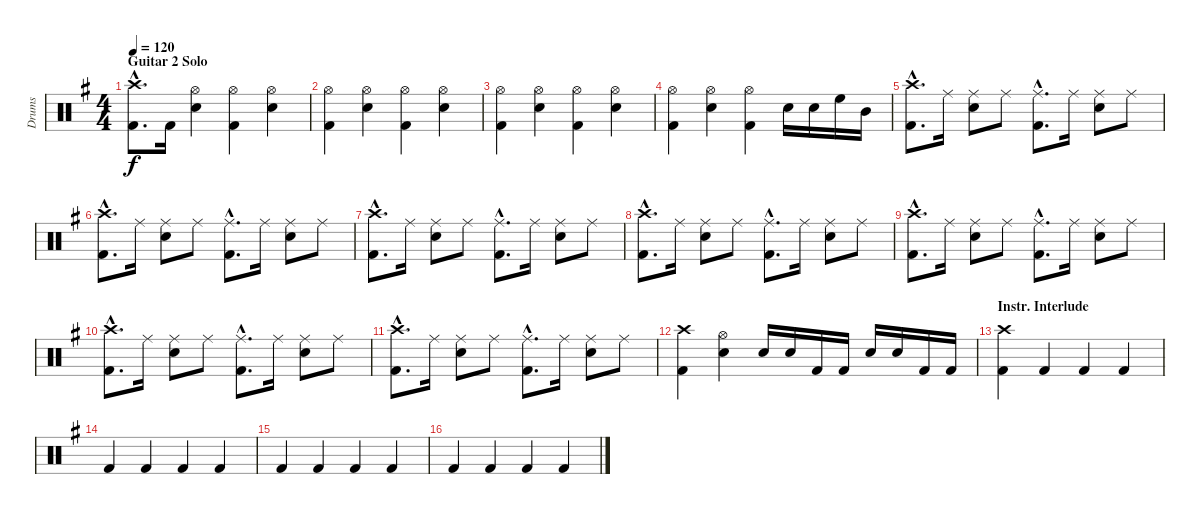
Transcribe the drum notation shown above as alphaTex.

\track ("Drums" "Drums") {instrument percussion}
\staff {score}
\articulation defaults
\ts (4 4)
\section ("" "Guitar 2 Solo")
\tempo 120
\clef neutral
\ks eminor
("Crash high (hit)"{hac} "Kick (hit) 2"{hac}).8{d dy f} "Kick (hit) 2".16 ("Hi-Hat (open)" "Snare (hit) 2").4 ("Hi-Hat (open)" "Kick (hit) 2").4 ("Hi-Hat (open)" "Snare (hit) 2").4 |
("Hi-Hat (open)" "Kick (hit) 2").4 ("Hi-Hat (open)" "Snare (hit) 2").4 ("Hi-Hat (open)" "Kick (hit) 2").4 ("Hi-Hat (open)" "Snare (hit) 2").4 |
("Hi-Hat (open)" "Kick (hit) 2").4 ("Hi-Hat (open)" "Snare (hit) 2").4 ("Hi-Hat (open)" "Kick (hit) 2").4 ("Hi-Hat (open)" "Snare (hit) 2").4 |
("Hi-Hat (open)" "Kick (hit) 2").4 ("Hi-Hat (open)" "Snare (hit) 2").4 ("Hi-Hat (open)" "Kick (hit) 2").4 "Snare (hit) 2".16 "Snare (hit) 2".16 "High Floor Tom (hit)".16 "Mid Tom (hit)".16 |
("Crash high (hit)"{hac} "Kick (hit) 2"{hac}).8{d} "Ride (middle)".16 ("Ride (middle)" "Snare (hit) 2").8 "Ride (middle)".8 ("Ride (middle)"{hac} "Kick (hit) 2"{hac}).8{d} "Ride (middle)".16 ("Ride (middle)" "Snare (hit) 2").8 "Ride (middle)".8 |
("Crash high (hit)"{hac} "Kick (hit) 2"{hac}).8{d} "Ride (middle)".16 ("Ride (middle)" "Snare (hit) 2").8 "Ride (middle)".8 ("Ride (middle)"{hac} "Kick (hit) 2"{hac}).8{d} "Ride (middle)".16 ("Ride (middle)" "Snare (hit) 2").8 "Ride (middle)".8 |
("Crash high (hit)"{hac} "Kick (hit) 2"{hac}).8{d} "Ride (middle)".16 ("Ride (middle)" "Snare (hit) 2").8 "Ride (middle)".8 ("Ride (middle)"{hac} "Kick (hit) 2"{hac}).8{d} "Ride (middle)".16 ("Ride (middle)" "Snare (hit) 2").8 "Ride (middle)".8 |
("Crash high (hit)"{hac} "Kick (hit) 2"{hac}).8{d} "Ride (middle)".16 ("Ride (middle)" "Snare (hit) 2").8 "Ride (middle)".8 ("Ride (middle)"{hac} "Kick (hit) 2"{hac}).8{d} "Ride (middle)".16 ("Ride (middle)" "Snare (hit) 2").8 "Ride (middle)".8 |
("Crash high (hit)"{hac} "Kick (hit) 2"{hac}).8{d} "Ride (middle)".16 ("Ride (middle)" "Snare (hit) 2").8 "Ride (middle)".8 ("Ride (middle)"{hac} "Kick (hit) 2"{hac}).8{d} "Ride (middle)".16 ("Ride (middle)" "Snare (hit) 2").8 "Ride (middle)".8 |
("Crash high (hit)"{hac} "Kick (hit) 2"{hac}).8{d} "Ride (middle)".16 ("Ride (middle)" "Snare (hit) 2").8 "Ride (middle)".8 ("Ride (middle)"{hac} "Kick (hit) 2"{hac}).8{d} "Ride (middle)".16 ("Ride (middle)" "Snare (hit) 2").8 "Ride (middle)".8 |
("Crash high (hit)"{hac} "Kick (hit) 2"{hac}).8{d} "Ride (middle)".16 ("Ride (middle)" "Snare (hit) 2").8 "Ride (middle)".8 ("Ride (middle)"{hac} "Kick (hit) 2"{hac}).8{d} "Ride (middle)".16 ("Ride (middle)" "Snare (hit) 2").8 "Ride (middle)".8 |
("Crash high (hit)" "Kick (hit) 2").4 ("Hi-Hat (open)" "Snare (hit) 2").4 "Snare (hit) 2".16 "Snare (hit) 2".16 "Kick (hit) 2".16 "Kick (hit) 2".16 "Snare (hit) 2".16 "Snare (hit) 2".16 "Kick (hit) 2".16 "Kick (hit) 2".16 |
\section ("" "Instr. Interlude")
("Crash high (hit)" "Kick (hit) 2").4 "Kick (hit) 2".4 "Kick (hit) 2".4 "Kick (hit) 2".4 |
"Kick (hit) 2".4 "Kick (hit) 2".4 "Kick (hit) 2".4 "Kick (hit) 2".4 |
"Kick (hit) 2".4 "Kick (hit) 2".4 "Kick (hit) 2".4 "Kick (hit) 2".4 |
"Kick (hit) 2".4 "Kick (hit) 2".4 "Kick (hit) 2".4 "Kick (hit) 2".4
